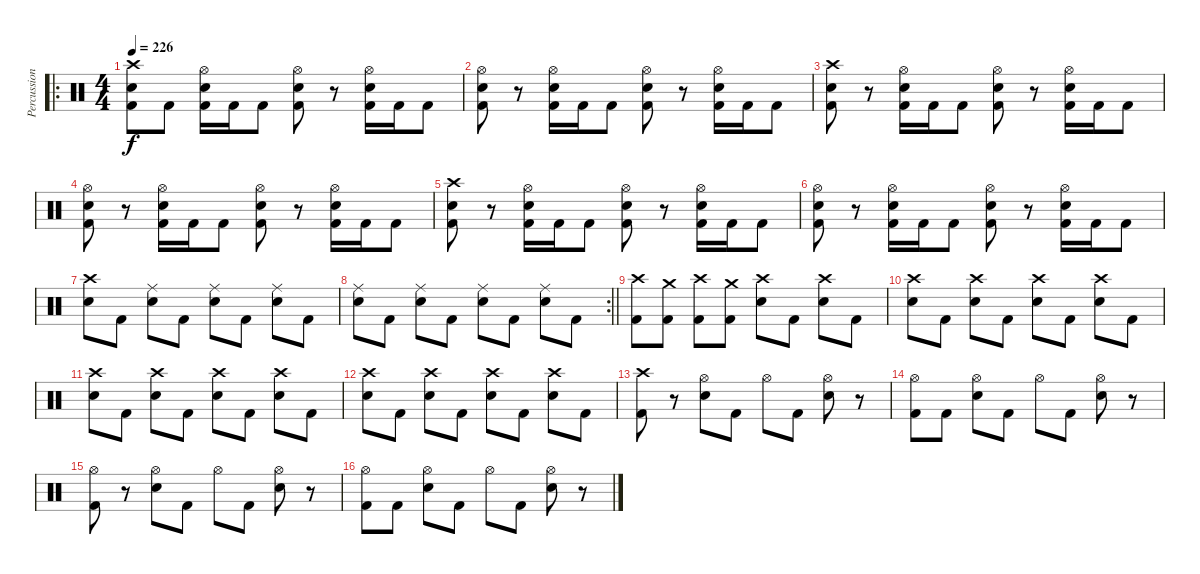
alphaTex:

\track ("Percussion" "Percussion") {instrument percussion}
\staff {score}
\articulation defaults
\ro
\ts (4 4)
\section ("" "")
\tempo 226
\clef neutral
\ks c
("Crash high (hit)" "Snare (hit) 2" "Kick (hit) 2").8{dy f} "Kick (hit) 2".8 ("Hi-Hat (open)" "Snare (hit) 2" "Kick (hit) 2").16 "Kick (hit) 2".16 "Kick (hit) 2".8 ("Hi-Hat (open)" "Snare (hit) 2" "Kick (hit) 2").8 r.8 ("Hi-Hat (open)" "Snare (hit) 2" "Kick (hit) 2").16 "Kick (hit) 2".16 "Kick (hit) 2".8 |
("Hi-Hat (open)" "Snare (hit) 2" "Kick (hit) 2").8 r.8 ("Hi-Hat (open)" "Snare (hit) 2" "Kick (hit) 2").16 "Kick (hit) 2".16 "Kick (hit) 2".8 ("Hi-Hat (open)" "Snare (hit) 2" "Kick (hit) 2").8 r.8 ("Hi-Hat (open)" "Snare (hit) 2" "Kick (hit) 2").16 "Kick (hit) 2".16 "Kick (hit) 2".8 |
("Crash high (hit)" "Snare (hit) 2" "Kick (hit) 2").8 r.8 ("Hi-Hat (open)" "Snare (hit) 2" "Kick (hit) 2").16 "Kick (hit) 2".16 "Kick (hit) 2".8 ("Hi-Hat (open)" "Snare (hit) 2" "Kick (hit) 2").8 r.8 ("Hi-Hat (open)" "Snare (hit) 2" "Kick (hit) 2").16 "Kick (hit) 2".16 "Kick (hit) 2".8 |
("Hi-Hat (open)" "Snare (hit) 2" "Kick (hit) 2").8 r.8 ("Hi-Hat (open)" "Snare (hit) 2" "Kick (hit) 2").16 "Kick (hit) 2".16 "Kick (hit) 2".8 ("Hi-Hat (open)" "Snare (hit) 2" "Kick (hit) 2").8 r.8 ("Hi-Hat (open)" "Snare (hit) 2" "Kick (hit) 2").16 "Kick (hit) 2".16 "Kick (hit) 2".8 |
("Crash high (hit)" "Snare (hit) 2" "Kick (hit) 2").8 r.8 ("Hi-Hat (open)" "Snare (hit) 2" "Kick (hit) 2").16 "Kick (hit) 2".16 "Kick (hit) 2".8 ("Hi-Hat (open)" "Snare (hit) 2" "Kick (hit) 2").8 r.8 ("Hi-Hat (open)" "Snare (hit) 2" "Kick (hit) 2").16 "Kick (hit) 2".16 "Kick (hit) 2".8 |
("Hi-Hat (open)" "Snare (hit) 2" "Kick (hit) 2").8 r.8 ("Hi-Hat (open)" "Snare (hit) 2" "Kick (hit) 2").16 "Kick (hit) 2".16 "Kick (hit) 2".8 ("Hi-Hat (open)" "Snare (hit) 2" "Kick (hit) 2").8 r.8 ("Hi-Hat (open)" "Snare (hit) 2" "Kick (hit) 2").16 "Kick (hit) 2".16 "Kick (hit) 2".8 |
("Crash high (hit)" "Snare (hit) 2").8 "Kick (hit) 2".8 ("Ride (middle)" "Snare (hit) 2").8 "Kick (hit) 2".8 ("Ride (middle)" "Snare (hit) 2").8 "Kick (hit) 2".8 ("Ride (middle)" "Snare (hit) 2").8 "Kick (hit) 2".8 |
\rc 2
\barLineRight lightlight
("Ride (middle)" "Snare (hit) 2").8 "Kick (hit) 2".8 ("Ride (middle)" "Snare (hit) 2").8 "Kick (hit) 2".8 ("Ride (middle)" "Snare (hit) 2").8 "Kick (hit) 2".8 ("Ride (middle)" "Snare (hit) 2").8 "Kick (hit) 2".8 |
\section ("" "")
("Crash high (hit)" "Kick (hit) 2").8 ("Crash medium (hit)" "Kick (hit) 2").8 ("Crash high (hit)" "Kick (hit) 2").8 ("Crash medium (hit)" "Kick (hit) 2").8 ("Crash high (hit)" "Snare (hit) 2").8 "Kick (hit) 2".8 ("Crash high (hit)" "Snare (hit) 2").8 "Kick (hit) 2".8 |
("Crash high (hit)" "Snare (hit) 2").8 "Kick (hit) 2".8 ("Crash high (hit)" "Snare (hit) 2").8 "Kick (hit) 2".8 ("Crash high (hit)" "Snare (hit) 2").8 "Kick (hit) 2".8 ("Crash high (hit)" "Snare (hit) 2").8 "Kick (hit) 2".8 |
("Crash high (hit)" "Snare (hit) 2").8 "Kick (hit) 2".8 ("Crash high (hit)" "Snare (hit) 2").8 "Kick (hit) 2".8 ("Crash high (hit)" "Snare (hit) 2").8 "Kick (hit) 2".8 ("Crash high (hit)" "Snare (hit) 2").8 "Kick (hit) 2".8 |
("Crash high (hit)" "Snare (hit) 2").8 "Kick (hit) 2".8 ("Crash high (hit)" "Snare (hit) 2").8 "Kick (hit) 2".8 ("Crash high (hit)" "Snare (hit) 2").8 "Kick (hit) 2".8 ("Crash high (hit)" "Snare (hit) 2").8 "Kick (hit) 2".8 |
("Crash high (hit)" "Kick (hit) 2").8 r.8 ("Hi-Hat (open)" "Snare (hit) 2").8 "Kick (hit) 2".8 "Hi-Hat (open)".8 "Kick (hit) 2".8 ("Hi-Hat (open)" "Snare (hit) 2").8 r.8 |
("Hi-Hat (open)" "Kick (hit) 2").8 "Kick (hit) 2".8 ("Hi-Hat (open)" "Snare (hit) 2").8 "Kick (hit) 2".8 "Hi-Hat (open)".8 "Kick (hit) 2".8 ("Hi-Hat (open)" "Snare (hit) 2").8 r.8 |
("Hi-Hat (open)" "Kick (hit) 2").8 r.8 ("Hi-Hat (open)" "Snare (hit) 2").8 "Kick (hit) 2".8 "Hi-Hat (open)".8 "Kick (hit) 2".8 ("Hi-Hat (open)" "Snare (hit) 2").8 r.8 |
("Hi-Hat (open)" "Kick (hit) 2").8 "Kick (hit) 2".8 ("Hi-Hat (open)" "Snare (hit) 2").8 "Kick (hit) 2".8 "Hi-Hat (open)".8 "Kick (hit) 2".8 ("Hi-Hat (open)" "Snare (hit) 2").8 r.8
